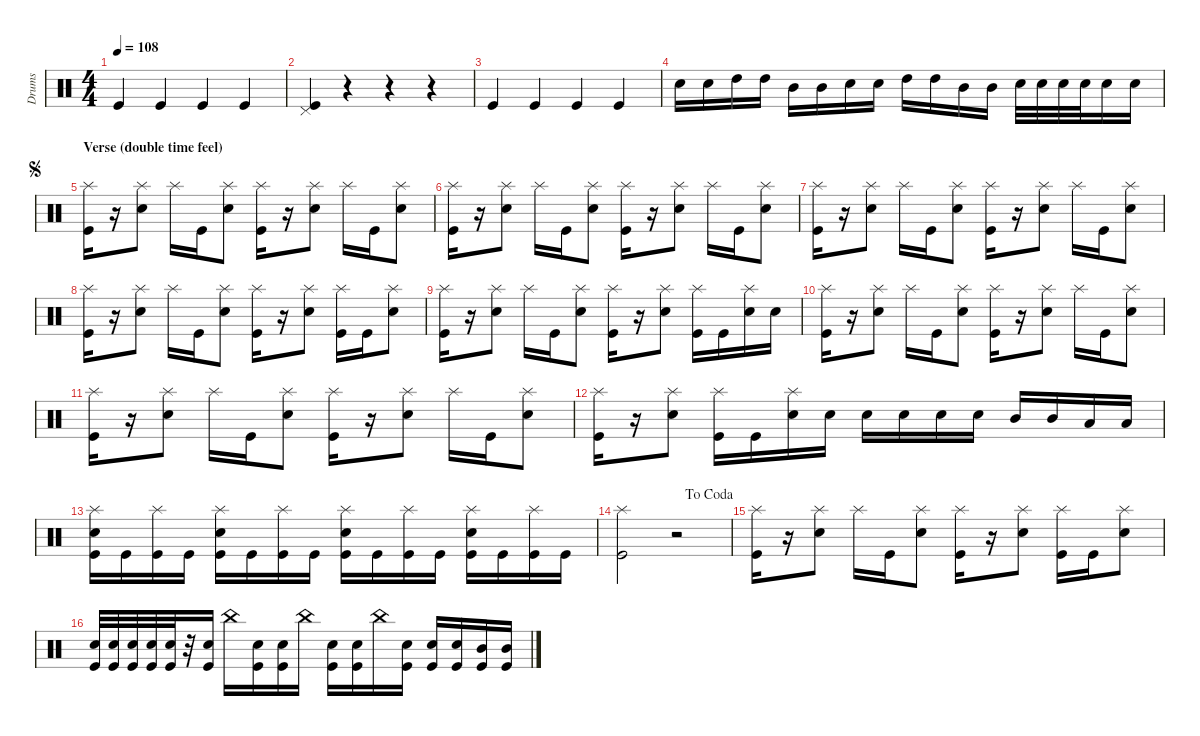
\defaultSystemsLayout 4
\hideDynamics
\bracketExtendMode groupsimilarinstruments
\otherSystemsTrackNameOrientation horizontal
\chordDiagramsInScore
\track ("Drumkit" "Drums") {instrument percussion}
\staff {score}
\articulation defaults
\ts (4 4)
\tempo 108
\clef neutral
\ks c "Kick (hit)".4{dy f} "Kick (hit)".4 "Kick (hit)".4 "Kick (hit)".4
|
("Kick (hit)" "Pedal Hi-Hat (hit)").4 r.4 r.4 r.4 |
"Kick (hit)".4 "Kick (hit)".4 "Kick (hit)".4 "Kick (hit)".4 |
"Snare (hit) 2".16 "Snare (hit) 2".16 "High Tom (hit)".16 "High Tom (hit)".16 "Mid Tom (hit)".16 "Mid Tom (hit)".16 "Snare (hit) 2".16 "Snare (hit) 2".16 "High Tom (hit)".16 "High Tom (hit)".16 "Mid Tom (hit)".16 "Mid Tom (hit)".16 "Snare (hit) 2".32 "Snare (hit) 2".32 "Snare (hit) 2".32 "Snare (hit) 2".32 "Snare (hit) 2".16 "Snare (hit) 2".16 |
\section ("" "Verse (double time feel)")
\jump segno
("Kick (hit)" "Splash (hit)").16{dy mf} r.16 ("Snare (hit) 2" "Splash (hit)").8 "Splash (hit)".16 "Kick (hit)".16 ("Snare (hit) 2" "Splash (hit)").8 ("Kick (hit)" "Splash (hit)").16 r.16 ("Snare (hit) 2" "Splash (hit)").8 "Splash (hit)".16 "Kick (hit)".16 ("Snare (hit) 2" "Splash (hit)").8 |
("Kick (hit)" "Splash (hit)").16 r.16 ("Snare (hit) 2" "Splash (hit)").8 "Splash (hit)".16 "Kick (hit)".16 ("Snare (hit) 2" "Splash (hit)").8 ("Kick (hit)" "Splash (hit)").16 r.16 ("Snare (hit) 2" "Splash (hit)").8 "Splash (hit)".16 "Kick (hit)".16 ("Snare (hit) 2" "Splash (hit)").8 |
("Kick (hit)" "Splash (hit)").16 r.16 ("Snare (hit) 2" "Splash (hit)").8 "Splash (hit)".16 "Kick (hit)".16 ("Snare (hit) 2" "Splash (hit)").8 ("Kick (hit)" "Splash (hit)").16 r.16 ("Snare (hit) 2" "Splash (hit)").8 "Splash (hit)".16 "Kick (hit)".16 ("Snare (hit) 2" "Splash (hit)").8 |
("Kick (hit)" "Splash (hit)").16 r.16 ("Snare (hit) 2" "Splash (hit)").8 "Splash (hit)".16 "Kick (hit)".16 ("Snare (hit) 2" "Splash (hit)").8 ("Kick (hit)" "Splash (hit)").16 r.16 ("Snare (hit) 2" "Splash (hit)").8 ("Kick (hit)" "Splash (hit)").16 "Kick (hit)".16 ("Snare (hit) 2" "Splash (hit)").8 |
("Kick (hit)" "Splash (hit)").16 r.16 ("Snare (hit) 2" "Splash (hit)").8 "Splash (hit)".16 "Kick (hit)".16 ("Snare (hit) 2" "Splash (hit)").8 ("Kick (hit)" "Splash (hit)").16 r.16 ("Snare (hit) 2" "Splash (hit)").8 ("Splash (hit)" "Kick (hit)").16 "Kick (hit)".16 ("Snare (hit) 2" "Splash (hit)").16 "Snare (hit) 2".16 |
("Kick (hit)" "Splash (hit)").16 r.16 ("Snare (hit) 2" "Splash (hit)").8 "Splash (hit)".16 "Kick (hit)".16 ("Snare (hit) 2" "Splash (hit)").8 ("Kick (hit)" "Splash (hit)").16 r.16 ("Snare (hit) 2" "Splash (hit)").8 "Splash (hit)".16 "Kick (hit)".16 ("Snare (hit) 2" "Splash (hit)").8 |
("Kick (hit)" "Splash (hit)").16 r.16 ("Snare (hit) 2" "Splash (hit)").8 "Splash (hit)".16 "Kick (hit)".16 ("Snare (hit) 2" "Splash (hit)").8 ("Kick (hit)" "Splash (hit)").16 r.16 ("Snare (hit) 2" "Splash (hit)").8 "Splash (hit)".16 "Kick (hit)".16 ("Snare (hit) 2" "Splash (hit)").8 |
("Kick (hit)" "Splash (hit)").16 r.16 ("Snare (hit) 2" "Splash (hit)").8 ("Splash (hit)" "Kick (hit)").16 "Kick (hit)".16 ("Snare (hit) 2" "Splash (hit)").16 "Snare (hit) 2".16 "Snare (hit) 2".16 "Snare (hit) 2".16 "Snare (hit) 2".16 "Snare (hit) 2".16 "Mid Tom (hit)".16 "Mid Tom (hit)".16 "Low Tom (hit)".16 "Low Tom (hit)".16 |
("Kick (hit)" "Splash (hit)" "Snare (hit) 2").16 "Kick (hit)".16 ("Kick (hit)" "Splash (hit)").16 "Kick (hit)".16 ("Kick (hit)" "Splash (hit)" "Snare (hit) 2").16 "Kick (hit)".16 ("Kick (hit)" "Splash (hit)").16 "Kick (hit)".16 ("Kick (hit)" "Splash (hit)" "Snare (hit) 2").16 "Kick (hit)".16 ("Kick (hit)" "Splash (hit)").16 "Kick (hit)".16 ("Kick (hit)" "Snare (hit) 2" "Splash (hit)").16 "Kick (hit)".16 ("Kick (hit)" "Splash (hit)").16 "Kick (hit)".16 |
\jump dacoda
("Kick (hit)" "Splash (hit)").2 r.2 |
("Kick (hit)" "Splash (hit)").16 r.16 ("Snare (hit) 2" "Splash (hit)").8 "Splash (hit)".16 "Kick (hit)".16 ("Snare (hit) 2" "Splash (hit)").8 ("Kick (hit)" "Splash (hit)").16 r.16 ("Snare (hit) 2" "Splash (hit)").8 ("Splash (hit)" "Kick (hit)").16 "Kick (hit)".16 ("Snare (hit) 2" "Splash (hit)").8 |
("Kick (hit)" "Snare (hit) 2").32 ("Kick (hit)" "Snare (hit) 2").32 ("Kick (hit)" "Snare (hit) 2").32 ("Kick (hit)" "Snare (hit) 2").32 ("Kick (hit)" "Snare (hit) 2").32 r.32 ("Kick (hit)" "Snare (hit) 2").16 "China (hit)".16 ("Kick (hit)" "Snare (hit) 2").16 ("Kick (hit)" "Snare (hit) 2").16 "China (hit)".16 ("Kick (hit)" "Snare (hit) 2").16 ("Kick (hit)" "Snare (hit) 2").16 "China (hit)".16 ("Kick (hit)" "Snare (hit) 2").16 ("Kick (hit)" "Snare (hit) 2").16 ("Kick (hit)" "Snare (hit) 2").16 ("Kick (hit)" "Mid Tom (hit)").16 ("Kick (hit)" "Mid Tom (hit)").16
